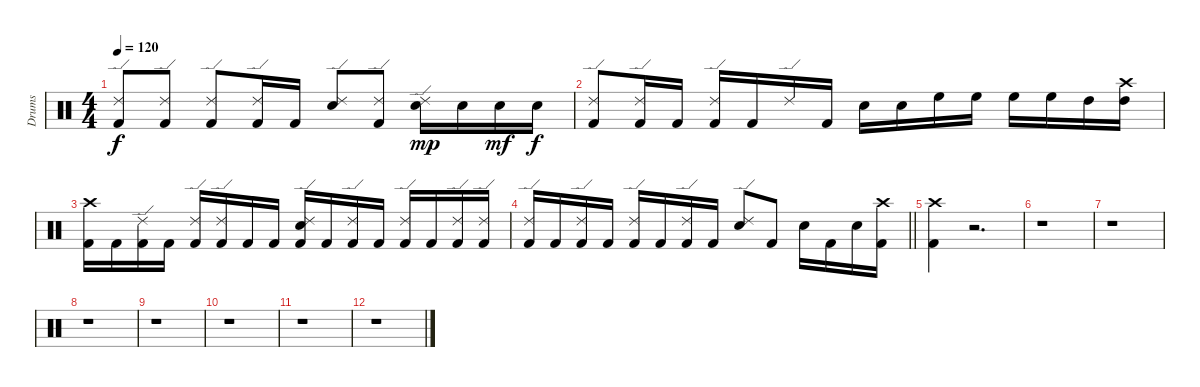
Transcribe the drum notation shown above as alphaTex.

\track ("Drums" "Drums") {instrument percussion}
\staff {score}
\articulation defaults
\ts (4 4)
\tempo 120
\clef neutral
\ks c
("Ride (edge) 2" "Kick (hit) 2").8{dy f} ("Ride (edge) 2" "Kick (hit) 2").8 ("Ride (edge) 2" "Kick (hit) 2").8 ("Ride (edge) 2" "Kick (hit) 2").16 "Kick (hit) 2".16 ("Ride (edge) 2" "Electric Snare (hit)").8 ("Ride (edge) 2" "Kick (hit) 2").8 ("Ride (edge) 2" "Electric Snare (hit)").16{dy mp} "Electric Snare (hit)".16 "Electric Snare (hit)".16{dy mf} "Electric Snare (hit)".16{dy f} |
("Ride (edge) 2" "Kick (hit) 2").8 ("Ride (edge) 2" "Kick (hit) 2").16 "Kick (hit) 2".16 ("Ride (edge) 2" "Kick (hit) 2").16 "Kick (hit) 2".16 "Ride (edge) 2".16 "Kick (hit) 2".16 "Electric Snare (hit)".16 "Electric Snare (hit)".16 "High Floor Tom (hit)".16 "High Floor Tom (hit)".16 "High Floor Tom (hit)".16 "High Floor Tom (hit)".16 "High Tom (hit)".16 ("Crash high (hit)" "High Tom (hit)").16 |
("Crash high (hit)" "Kick (hit) 2").16 "Kick (hit) 2".16 ("Ride (edge) 2" "Kick (hit) 2").16 "Kick (hit) 2".16 ("Ride (edge) 2" "Kick (hit) 2").16 ("Ride (edge) 2" "Kick (hit) 2").16 "Kick (hit) 2".16 "Kick (hit) 2".16 ("Ride (edge) 2" "Electric Snare (hit)" "Kick (hit) 2").16 "Kick (hit) 2".16 ("Ride (edge) 2" "Kick (hit) 2").16 "Kick (hit) 2".16 ("Ride (edge) 2" "Kick (hit) 2").16 "Kick (hit) 2".16 ("Ride (edge) 2" "Kick (hit) 2").16 ("Ride (edge) 2" "Kick (hit) 2").16 |
\barLineRight lightlight
("Ride (edge) 2" "Kick (hit) 2").16 "Kick (hit) 2".16 ("Ride (edge) 2" "Kick (hit) 2").16 "Kick (hit) 2".16 ("Ride (edge) 2" "Kick (hit) 2").16 "Kick (hit) 2".16 ("Ride (edge) 2" "Kick (hit) 2").16 "Kick (hit) 2".16 ("Ride (edge) 2" "Electric Snare (hit)").8 "Kick (hit) 2".8 "Electric Snare (hit)".16 "Kick (hit) 2".16 "Electric Snare (hit)".16 ("Crash high (hit)" "Kick (hit) 2").16 |
("Crash high (hit)" "Kick (hit) 2").4 r.2{d} |
r.1 |
r.1 |
r.1 |
r.1 |
r.1 |
r.1 |
r.1
